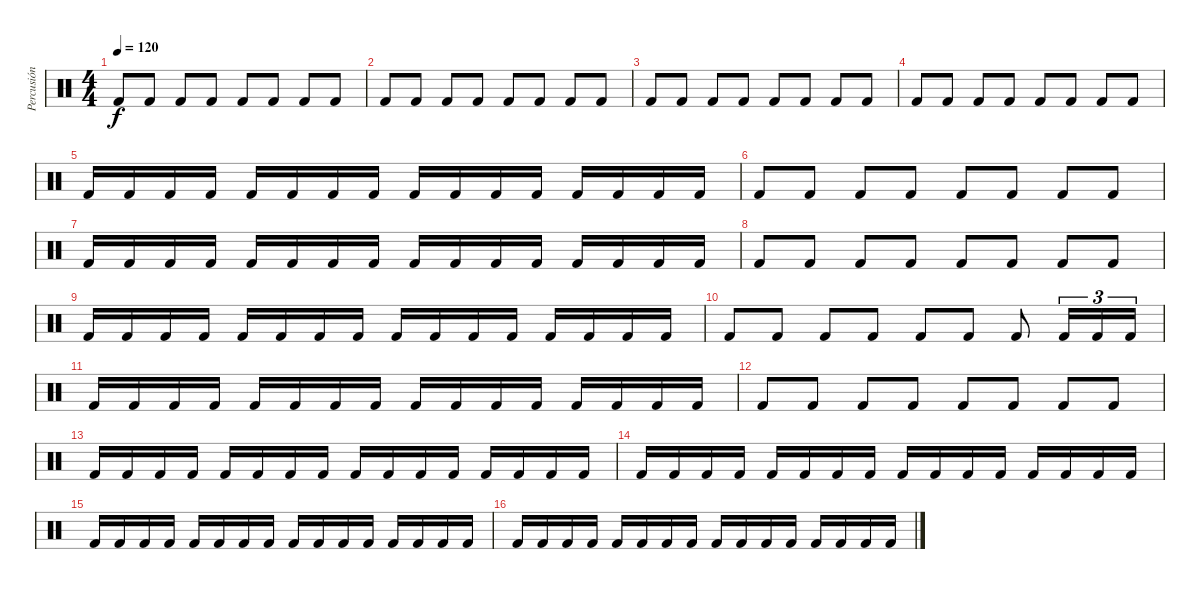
\track ("Percusión" "Percusión") {instrument percussion}
\staff {score}
\articulation defaults
\ts (4 4)
\tempo 120
\clef neutral
\ks c "Kick (hit) 2".8{dy f} "Kick (hit) 2".8 "Kick (hit) 2".8 "Kick (hit) 2".8 "Kick (hit) 2".8 "Kick (hit) 2".8 "Kick (hit) 2".8 "Kick (hit) 2".8
|
"Kick (hit) 2".8 "Kick (hit) 2".8 "Kick (hit) 2".8 "Kick (hit) 2".8 "Kick (hit) 2".8 "Kick (hit) 2".8 "Kick (hit) 2".8 "Kick (hit) 2".8 |
"Kick (hit) 2".8 "Kick (hit) 2".8 "Kick (hit) 2".8 "Kick (hit) 2".8 "Kick (hit) 2".8 "Kick (hit) 2".8 "Kick (hit) 2".8 "Kick (hit) 2".8 |
"Kick (hit) 2".8 "Kick (hit) 2".8 "Kick (hit) 2".8 "Kick (hit) 2".8 "Kick (hit) 2".8 "Kick (hit) 2".8 "Kick (hit) 2".8 "Kick (hit) 2".8 |
"Kick (hit) 2".16 "Kick (hit) 2".16 "Kick (hit) 2".16 "Kick (hit) 2".16 "Kick (hit) 2".16 "Kick (hit) 2".16 "Kick (hit) 2".16 "Kick (hit) 2".16 "Kick (hit) 2".16 "Kick (hit) 2".16 "Kick (hit) 2".16 "Kick (hit) 2".16 "Kick (hit) 2".16 "Kick (hit) 2".16 "Kick (hit) 2".16 "Kick (hit) 2".16 |
"Kick (hit) 2".8 "Kick (hit) 2".8 "Kick (hit) 2".8 "Kick (hit) 2".8 "Kick (hit) 2".8 "Kick (hit) 2".8 "Kick (hit) 2".8 "Kick (hit) 2".8 |
"Kick (hit) 2".16 "Kick (hit) 2".16 "Kick (hit) 2".16 "Kick (hit) 2".16 "Kick (hit) 2".16 "Kick (hit) 2".16 "Kick (hit) 2".16 "Kick (hit) 2".16 "Kick (hit) 2".16 "Kick (hit) 2".16 "Kick (hit) 2".16 "Kick (hit) 2".16 "Kick (hit) 2".16 "Kick (hit) 2".16 "Kick (hit) 2".16 "Kick (hit) 2".16 |
"Kick (hit) 2".8 "Kick (hit) 2".8 "Kick (hit) 2".8 "Kick (hit) 2".8 "Kick (hit) 2".8 "Kick (hit) 2".8 "Kick (hit) 2".8 "Kick (hit) 2".8 |
"Kick (hit) 2".16 "Kick (hit) 2".16 "Kick (hit) 2".16 "Kick (hit) 2".16 "Kick (hit) 2".16 "Kick (hit) 2".16 "Kick (hit) 2".16 "Kick (hit) 2".16 "Kick (hit) 2".16 "Kick (hit) 2".16 "Kick (hit) 2".16 "Kick (hit) 2".16 "Kick (hit) 2".16 "Kick (hit) 2".16 "Kick (hit) 2".16 "Kick (hit) 2".16 |
"Kick (hit) 2".8 "Kick (hit) 2".8 "Kick (hit) 2".8 "Kick (hit) 2".8 "Kick (hit) 2".8 "Kick (hit) 2".8 "Kick (hit) 2".8 "Kick (hit) 2".16{tu (3 2)} "Kick (hit) 2".16{tu (3 2)} "Kick (hit) 2".16{tu (3 2)} |
"Kick (hit) 2".16 "Kick (hit) 2".16 "Kick (hit) 2".16 "Kick (hit) 2".16 "Kick (hit) 2".16 "Kick (hit) 2".16 "Kick (hit) 2".16 "Kick (hit) 2".16 "Kick (hit) 2".16 "Kick (hit) 2".16 "Kick (hit) 2".16 "Kick (hit) 2".16 "Kick (hit) 2".16 "Kick (hit) 2".16 "Kick (hit) 2".16 "Kick (hit) 2".16 |
"Kick (hit) 2".8 "Kick (hit) 2".8 "Kick (hit) 2".8 "Kick (hit) 2".8 "Kick (hit) 2".8 "Kick (hit) 2".8 "Kick (hit) 2".8 "Kick (hit) 2".8 |
"Kick (hit) 2".16 "Kick (hit) 2".16 "Kick (hit) 2".16 "Kick (hit) 2".16 "Kick (hit) 2".16 "Kick (hit) 2".16 "Kick (hit) 2".16 "Kick (hit) 2".16 "Kick (hit) 2".16 "Kick (hit) 2".16 "Kick (hit) 2".16 "Kick (hit) 2".16 "Kick (hit) 2".16 "Kick (hit) 2".16 "Kick (hit) 2".16 "Kick (hit) 2".16 |
"Kick (hit) 2".16 "Kick (hit) 2".16 "Kick (hit) 2".16 "Kick (hit) 2".16 "Kick (hit) 2".16 "Kick (hit) 2".16 "Kick (hit) 2".16 "Kick (hit) 2".16 "Kick (hit) 2".16 "Kick (hit) 2".16 "Kick (hit) 2".16 "Kick (hit) 2".16 "Kick (hit) 2".16 "Kick (hit) 2".16 "Kick (hit) 2".16 "Kick (hit) 2".16 |
"Kick (hit) 2".16 "Kick (hit) 2".16 "Kick (hit) 2".16 "Kick (hit) 2".16 "Kick (hit) 2".16 "Kick (hit) 2".16 "Kick (hit) 2".16 "Kick (hit) 2".16 "Kick (hit) 2".16 "Kick (hit) 2".16 "Kick (hit) 2".16 "Kick (hit) 2".16 "Kick (hit) 2".16 "Kick (hit) 2".16 "Kick (hit) 2".16 "Kick (hit) 2".16 |
"Kick (hit) 2".16 "Kick (hit) 2".16 "Kick (hit) 2".16 "Kick (hit) 2".16 "Kick (hit) 2".16 "Kick (hit) 2".16 "Kick (hit) 2".16 "Kick (hit) 2".16 "Kick (hit) 2".16 "Kick (hit) 2".16 "Kick (hit) 2".16 "Kick (hit) 2".16 "Kick (hit) 2".16 "Kick (hit) 2".16 "Kick (hit) 2".16 "Kick (hit) 2".16
